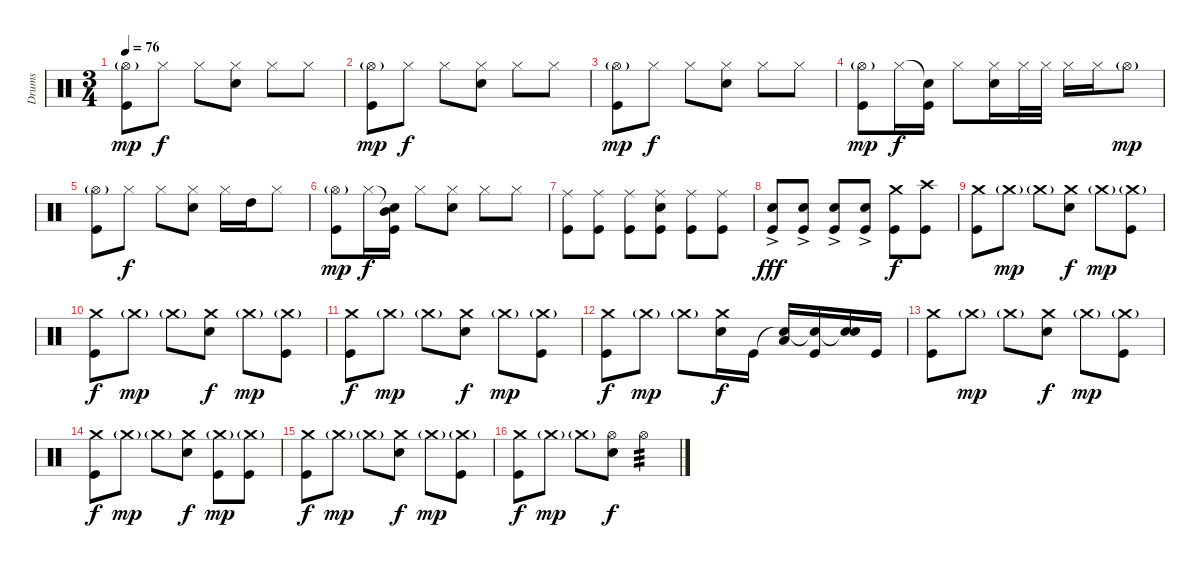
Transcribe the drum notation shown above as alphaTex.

\track ("Drums" "Drums") {instrument percussion}
\staff {score}
\articulation defaults
\ts (3 4)
\tempo 76
\clef neutral
\ks c
("Hi-Hat (open)"{g} "Kick (hit)").8{dy mp} "Hi-Hat (closed)".8{dy f} "Hi-Hat (closed)".8 ("Hi-Hat (closed)" "Electric Snare (hit)").8 "Hi-Hat (closed)".8 "Hi-Hat (closed)".8 |
("Hi-Hat (open)"{g} "Kick (hit)").8{dy mp} "Hi-Hat (closed)".8{dy f} "Hi-Hat (closed)".8 ("Hi-Hat (closed)" "Electric Snare (hit)").8 "Hi-Hat (closed)".8 "Hi-Hat (closed)".8 |
("Hi-Hat (open)"{g} "Kick (hit)").8{dy mp} "Hi-Hat (closed)".8{dy f} "Hi-Hat (closed)".8 ("Hi-Hat (closed)" "Electric Snare (hit)").8 "Hi-Hat (closed)".8 "Hi-Hat (closed)".8 |
("Hi-Hat (open)"{g} "Kick (hit)").8{dy mp} "Hi-Hat (closed)".16{dy f} ("Snare (hit)"{t} "Kick (hit)").16 "Hi-Hat (closed)".8 ("Hi-Hat (closed)" "Electric Snare (hit)").16 "Hi-Hat (closed)".32 "Hi-Hat (closed)".32 "Hi-Hat (closed)".16 "Hi-Hat (closed)".16 "Hi-Hat (open)"{g}.8{dy mp} |
("Hi-Hat (open)"{g} "Kick (hit)").8 "Hi-Hat (closed)".8{dy f} "Hi-Hat (closed)".8 ("Hi-Hat (closed)" "Electric Snare (hit)").8 "Hi-Hat (closed)".16 "High Tom (hit)".16 "Hi-Hat (closed)".8 |
("Hi-Hat (open)"{g} "Kick (hit)").8{dy mp} "Hi-Hat (closed)".16{dy f} ("Snare (hit)"{t} "Mid Tom (hit)" "Kick (hit)").16 "Hi-Hat (closed)".8 ("Hi-Hat (closed)" "Electric Snare (hit)").8 "Hi-Hat (closed)".8 "Hi-Hat (closed)".8 |
("Ride (middle)" "Kick (hit)").8 ("Ride (middle)" "Kick (hit)").8 ("Ride (middle)" "Kick (hit)").8 ("Ride (middle)" "Electric Snare (hit)" "Kick (hit)").8 ("Ride (middle)" "Kick (hit)").8 ("Ride (middle)" "Kick (hit)").8 |
("Electric Snare (hit)"{ac} "Kick (hit)").8{dy fff} ("Electric Snare (hit)"{ac} "Kick (hit)").8 ("Electric Snare (hit)"{ac} "Kick (hit)").8 ("Electric Snare (hit)"{ac} "Kick (hit)").8 ("Crash medium (hit)" "Kick (hit)").8{dy f} ("Crash high (hit)" "Kick (hit)").8 |
("Crash medium (hit)" "Kick (hit)").8 "Crash medium (hit)"{g}.8{dy mp} "Crash medium (hit)"{g}.8 ("Crash medium (hit)" "Electric Snare (hit)").8{dy f} "Crash medium (hit)"{g}.8{dy mp} ("Crash medium (hit)"{g} "Kick (hit)").8 |
("Crash medium (hit)" "Kick (hit)").8{dy f} "Crash medium (hit)"{g}.8{dy mp} "Crash medium (hit)"{g}.8 ("Crash medium (hit)" "Electric Snare (hit)").8{dy f} "Crash medium (hit)"{g}.8{dy mp} ("Crash medium (hit)"{g} "Kick (hit)").8 |
("Crash medium (hit)" "Kick (hit)").8{dy f} "Crash medium (hit)"{g}.8{dy mp} "Crash medium (hit)"{g}.8 ("Crash medium (hit)" "Electric Snare (hit)").8{dy f} "Crash medium (hit)"{g}.8{dy mp} ("Crash medium (hit)"{g} "Kick (hit)").8 |
("Crash medium (hit)" "Kick (hit)").8{dy f} "Crash medium (hit)"{g}.8{dy mp} "Crash medium (hit)"{g}.8 ("Crash medium (hit)" "Electric Snare (hit)").16{dy f} "Kick (hit)".16 ("Snare (hit)"{t} "Low Tom (hit)").16 ("Snare (hit)"{t} "Kick (hit)").16 ("Snare (hit)"{t} "Electric Snare (hit)").16 "Kick (hit)".16 |
("Crash medium (hit)" "Kick (hit)").8 "Crash medium (hit)"{g}.8{dy mp} "Crash medium (hit)"{g}.8 ("Crash medium (hit)" "Electric Snare (hit)").8{dy f} "Crash medium (hit)"{g}.8{dy mp} ("Crash medium (hit)"{g} "Kick (hit)").8 |
("Crash medium (hit)" "Kick (hit)").8{dy f} "Crash medium (hit)"{g}.8{dy mp} "Crash medium (hit)"{g}.8 ("Crash medium (hit)" "Electric Snare (hit)").8{dy f} ("Crash medium (hit)"{g} "Kick (hit)").8{dy mp} ("Crash medium (hit)"{g} "Kick (hit)").8 |
("Crash medium (hit)" "Kick (hit)").8{dy f} "Crash medium (hit)"{g}.8{dy mp} "Crash medium (hit)"{g}.8 ("Crash medium (hit)" "Electric Snare (hit)").8{dy f} "Crash medium (hit)"{g}.8{dy mp} ("Crash medium (hit)"{g} "Kick (hit)").8 |
("Crash medium (hit)" "Kick (hit)").8{dy f} "Crash medium (hit)"{g}.8{dy mp} "Crash medium (hit)"{g}.8 ("Hi-Hat (open)" "Electric Snare (hit)").8{dy f} "Hi-Hat (open)".4{tp 3}
